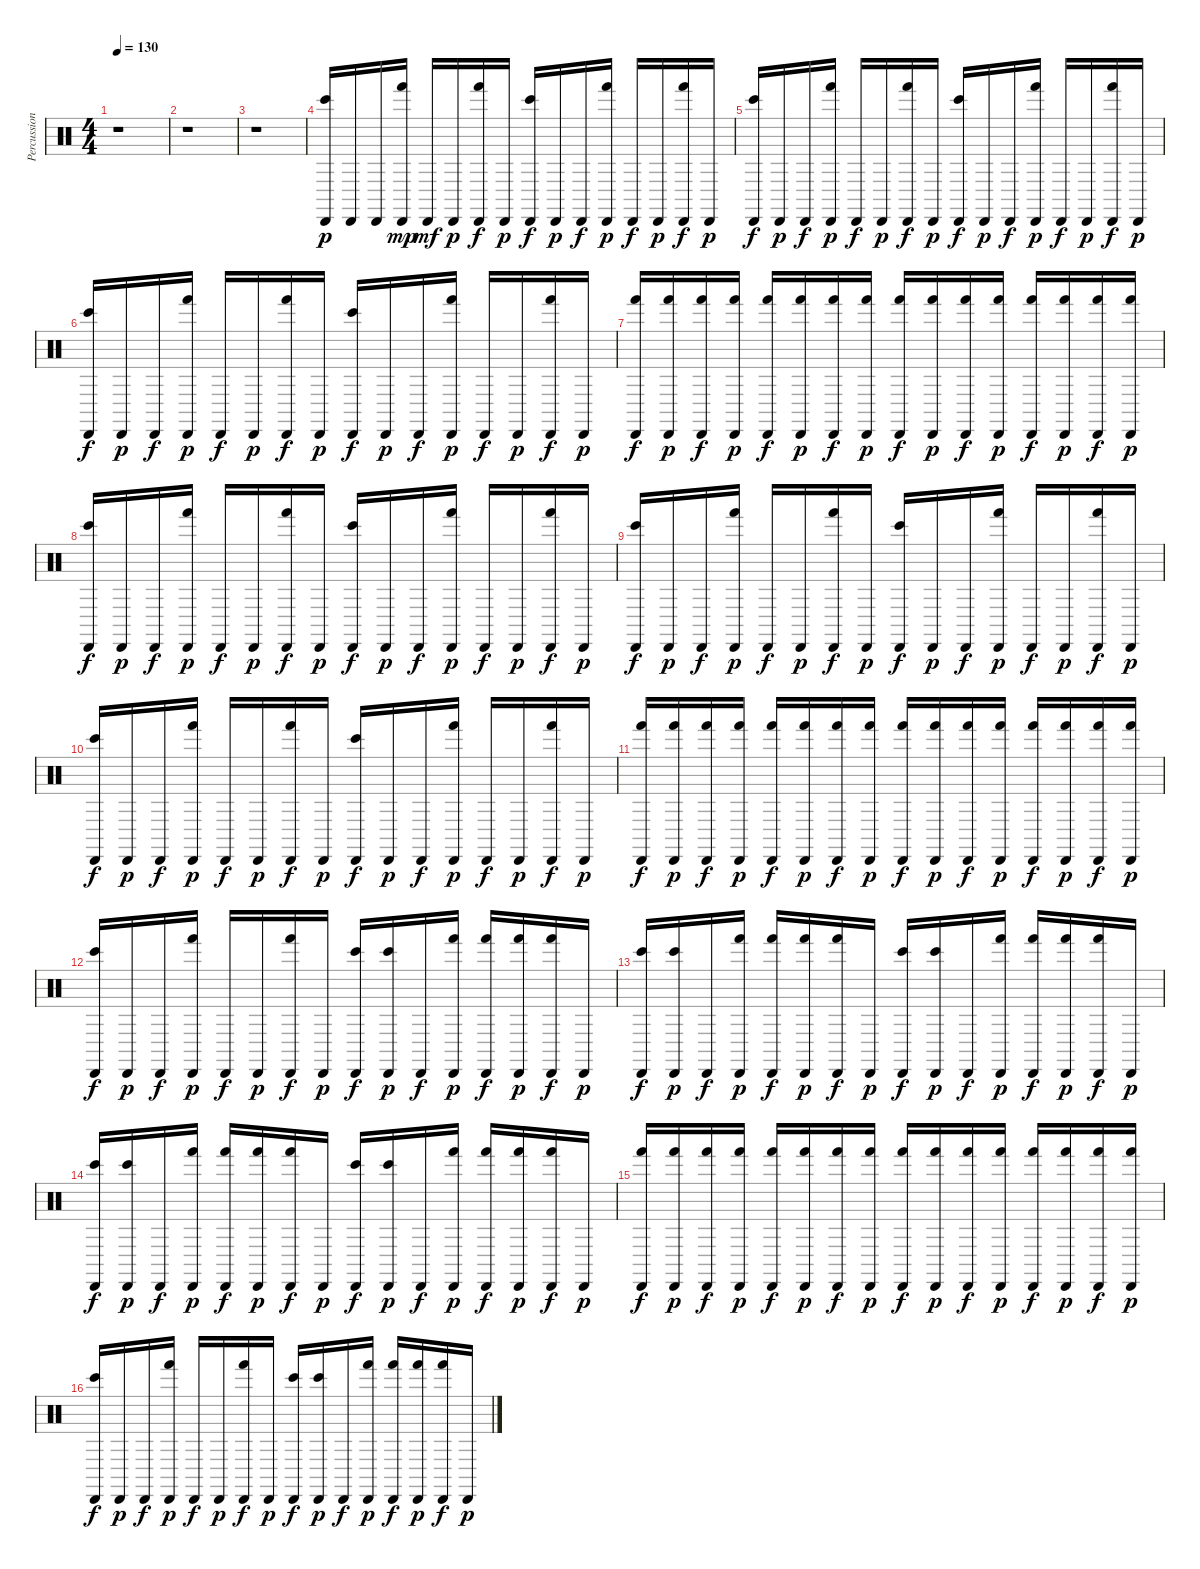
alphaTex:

\track ("Percussion" "Percussion") {instrument percussion}
\staff {score}
\articulation defaults
\ts (4 4)
\tempo 130
\clef neutral
\ks c
r.1{dy p} |
r.1 |
r.1 |
("Cabasa (hit)" "Bongo High (hit)").16 "Cabasa (hit)".16 "Cabasa (hit)".16 ("Cabasa (hit)" "Hand (hit)").16{dy mp} "Cabasa (hit)".16{dy mf} "Cabasa (hit)".16{dy p} ("Cabasa (hit)" "Hand (hit)").16{dy f} "Cabasa (hit)".16{dy p} ("Cabasa (hit)" "Bongo High (hit)").16{dy f} "Cabasa (hit)".16{dy p} "Cabasa (hit)".16{dy f} ("Cabasa (hit)" "Hand (hit)").16{dy p} "Cabasa (hit)".16{dy f} "Cabasa (hit)".16{dy p} ("Cabasa (hit)" "Hand (hit)").16{dy f} "Cabasa (hit)".16{dy p} |
("Cabasa (hit)" "Bongo High (hit)").16{dy f} "Cabasa (hit)".16{dy p} "Cabasa (hit)".16{dy f} ("Cabasa (hit)" "Hand (hit)").16{dy p} "Cabasa (hit)".16{dy f} "Cabasa (hit)".16{dy p} ("Cabasa (hit)" "Hand (hit)").16{dy f} "Cabasa (hit)".16{dy p} ("Cabasa (hit)" "Bongo High (hit)").16{dy f} "Cabasa (hit)".16{dy p} "Cabasa (hit)".16{dy f} ("Cabasa (hit)" "Hand (hit)").16{dy p} "Cabasa (hit)".16{dy f} "Cabasa (hit)".16{dy p} ("Cabasa (hit)" "Hand (hit)").16{dy f} "Cabasa (hit)".16{dy p} |
("Cabasa (hit)" "Bongo High (hit)").16{dy f} "Cabasa (hit)".16{dy p} "Cabasa (hit)".16{dy f} ("Cabasa (hit)" "Hand (hit)").16{dy p} "Cabasa (hit)".16{dy f} "Cabasa (hit)".16{dy p} ("Cabasa (hit)" "Hand (hit)").16{dy f} "Cabasa (hit)".16{dy p} ("Cabasa (hit)" "Bongo High (hit)").16{dy f} "Cabasa (hit)".16{dy p} "Cabasa (hit)".16{dy f} ("Cabasa (hit)" "Hand (hit)").16{dy p} "Cabasa (hit)".16{dy f} "Cabasa (hit)".16{dy p} ("Cabasa (hit)" "Hand (hit)").16{dy f} "Cabasa (hit)".16{dy p} |
("Cabasa (hit)" "Hand (hit)").16{dy f} ("Cabasa (hit)" "Hand (hit)").16{dy p} ("Cabasa (hit)" "Hand (hit)").16{dy f} ("Cabasa (hit)" "Hand (hit)").16{dy p} ("Cabasa (hit)" "Hand (hit)").16{dy f} ("Cabasa (hit)" "Hand (hit)").16{dy p} ("Cabasa (hit)" "Hand (hit)").16{dy f} ("Cabasa (hit)" "Hand (hit)").16{dy p} ("Cabasa (hit)" "Hand (hit)").16{dy f} ("Cabasa (hit)" "Hand (hit)").16{dy p} ("Cabasa (hit)" "Hand (hit)").16{dy f} ("Cabasa (hit)" "Hand (hit)").16{dy p} ("Cabasa (hit)" "Hand (hit)").16{dy f} ("Cabasa (hit)" "Hand (hit)").16{dy p} ("Cabasa (hit)" "Hand (hit)").16{dy f} ("Cabasa (hit)" "Hand (hit)").16{dy p} |
("Cabasa (hit)" "Bongo High (hit)").16{dy f} "Cabasa (hit)".16{dy p} "Cabasa (hit)".16{dy f} ("Cabasa (hit)" "Hand (hit)").16{dy p} "Cabasa (hit)".16{dy f} "Cabasa (hit)".16{dy p} ("Cabasa (hit)" "Hand (hit)").16{dy f} "Cabasa (hit)".16{dy p} ("Cabasa (hit)" "Bongo High (hit)").16{dy f} "Cabasa (hit)".16{dy p} "Cabasa (hit)".16{dy f} ("Cabasa (hit)" "Hand (hit)").16{dy p} "Cabasa (hit)".16{dy f} "Cabasa (hit)".16{dy p} ("Cabasa (hit)" "Hand (hit)").16{dy f} "Cabasa (hit)".16{dy p} |
("Cabasa (hit)" "Bongo High (hit)").16{dy f} "Cabasa (hit)".16{dy p} "Cabasa (hit)".16{dy f} ("Cabasa (hit)" "Hand (hit)").16{dy p} "Cabasa (hit)".16{dy f} "Cabasa (hit)".16{dy p} ("Cabasa (hit)" "Hand (hit)").16{dy f} "Cabasa (hit)".16{dy p} ("Cabasa (hit)" "Bongo High (hit)").16{dy f} "Cabasa (hit)".16{dy p} "Cabasa (hit)".16{dy f} ("Cabasa (hit)" "Hand (hit)").16{dy p} "Cabasa (hit)".16{dy f} "Cabasa (hit)".16{dy p} ("Cabasa (hit)" "Hand (hit)").16{dy f} "Cabasa (hit)".16{dy p} |
("Cabasa (hit)" "Bongo High (hit)").16{dy f} "Cabasa (hit)".16{dy p} "Cabasa (hit)".16{dy f} ("Cabasa (hit)" "Hand (hit)").16{dy p} "Cabasa (hit)".16{dy f} "Cabasa (hit)".16{dy p} ("Cabasa (hit)" "Hand (hit)").16{dy f} "Cabasa (hit)".16{dy p} ("Cabasa (hit)" "Bongo High (hit)").16{dy f} "Cabasa (hit)".16{dy p} "Cabasa (hit)".16{dy f} ("Cabasa (hit)" "Hand (hit)").16{dy p} "Cabasa (hit)".16{dy f} "Cabasa (hit)".16{dy p} ("Cabasa (hit)" "Hand (hit)").16{dy f} "Cabasa (hit)".16{dy p} |
("Cabasa (hit)" "Hand (hit)").16{dy f} ("Cabasa (hit)" "Hand (hit)").16{dy p} ("Cabasa (hit)" "Hand (hit)").16{dy f} ("Cabasa (hit)" "Hand (hit)").16{dy p} ("Cabasa (hit)" "Hand (hit)").16{dy f} ("Cabasa (hit)" "Hand (hit)").16{dy p} ("Cabasa (hit)" "Hand (hit)").16{dy f} ("Cabasa (hit)" "Hand (hit)").16{dy p} ("Cabasa (hit)" "Hand (hit)").16{dy f} ("Cabasa (hit)" "Hand (hit)").16{dy p} ("Cabasa (hit)" "Hand (hit)").16{dy f} ("Cabasa (hit)" "Hand (hit)").16{dy p} ("Cabasa (hit)" "Hand (hit)").16{dy f} ("Cabasa (hit)" "Hand (hit)").16{dy p} ("Cabasa (hit)" "Hand (hit)").16{dy f} ("Cabasa (hit)" "Hand (hit)").16{dy p} |
("Cabasa (hit)" "Bongo High (hit)").16{dy f} "Cabasa (hit)".16{dy p} "Cabasa (hit)".16{dy f} ("Cabasa (hit)" "Hand (hit)").16{dy p} "Cabasa (hit)".16{dy f} "Cabasa (hit)".16{dy p} ("Cabasa (hit)" "Hand (hit)").16{dy f} "Cabasa (hit)".16{dy p} ("Cabasa (hit)" "Bongo High (hit)").16{dy f} ("Cabasa (hit)" "Bongo High (hit)").16{dy p} "Cabasa (hit)".16{dy f} ("Cabasa (hit)" "Hand (hit)").16{dy p} ("Cabasa (hit)" "Hand (hit)").16{dy f} ("Cabasa (hit)" "Hand (hit)").16{dy p} ("Cabasa (hit)" "Hand (hit)").16{dy f} "Cabasa (hit)".16{dy p} |
("Cabasa (hit)" "Bongo High (hit)").16{dy f} ("Cabasa (hit)" "Bongo High (hit)").16{dy p} "Cabasa (hit)".16{dy f} ("Cabasa (hit)" "Hand (hit)").16{dy p} ("Cabasa (hit)" "Hand (hit)").16{dy f} ("Cabasa (hit)" "Hand (hit)").16{dy p} ("Cabasa (hit)" "Hand (hit)").16{dy f} "Cabasa (hit)".16{dy p} ("Cabasa (hit)" "Bongo High (hit)").16{dy f} ("Cabasa (hit)" "Bongo High (hit)").16{dy p} "Cabasa (hit)".16{dy f} ("Cabasa (hit)" "Hand (hit)").16{dy p} ("Cabasa (hit)" "Hand (hit)").16{dy f} ("Cabasa (hit)" "Hand (hit)").16{dy p} ("Cabasa (hit)" "Hand (hit)").16{dy f} "Cabasa (hit)".16{dy p} |
("Cabasa (hit)" "Bongo High (hit)").16{dy f} ("Cabasa (hit)" "Bongo High (hit)").16{dy p} "Cabasa (hit)".16{dy f} ("Cabasa (hit)" "Hand (hit)").16{dy p} ("Cabasa (hit)" "Hand (hit)").16{dy f} ("Cabasa (hit)" "Hand (hit)").16{dy p} ("Cabasa (hit)" "Hand (hit)").16{dy f} "Cabasa (hit)".16{dy p} ("Cabasa (hit)" "Bongo High (hit)").16{dy f} ("Cabasa (hit)" "Bongo High (hit)").16{dy p} "Cabasa (hit)".16{dy f} ("Cabasa (hit)" "Hand (hit)").16{dy p} ("Cabasa (hit)" "Hand (hit)").16{dy f} ("Cabasa (hit)" "Hand (hit)").16{dy p} ("Cabasa (hit)" "Hand (hit)").16{dy f} "Cabasa (hit)".16{dy p} |
("Cabasa (hit)" "Hand (hit)").16{dy f} ("Cabasa (hit)" "Hand (hit)").16{dy p} ("Cabasa (hit)" "Hand (hit)").16{dy f} ("Cabasa (hit)" "Hand (hit)").16{dy p} ("Cabasa (hit)" "Hand (hit)").16{dy f} ("Cabasa (hit)" "Hand (hit)").16{dy p} ("Cabasa (hit)" "Hand (hit)").16{dy f} ("Cabasa (hit)" "Hand (hit)").16{dy p} ("Cabasa (hit)" "Hand (hit)").16{dy f} ("Cabasa (hit)" "Hand (hit)").16{dy p} ("Cabasa (hit)" "Hand (hit)").16{dy f} ("Cabasa (hit)" "Hand (hit)").16{dy p} ("Cabasa (hit)" "Hand (hit)").16{dy f} ("Cabasa (hit)" "Hand (hit)").16{dy p} ("Cabasa (hit)" "Hand (hit)").16{dy f} ("Cabasa (hit)" "Hand (hit)").16{dy p} |
("Cabasa (hit)" "Bongo High (hit)").16{dy f} "Cabasa (hit)".16{dy p} "Cabasa (hit)".16{dy f} ("Cabasa (hit)" "Hand (hit)").16{dy p} "Cabasa (hit)".16{dy f} "Cabasa (hit)".16{dy p} ("Cabasa (hit)" "Hand (hit)").16{dy f} "Cabasa (hit)".16{dy p} ("Cabasa (hit)" "Bongo High (hit)").16{dy f} ("Cabasa (hit)" "Bongo High (hit)").16{dy p} "Cabasa (hit)".16{dy f} ("Cabasa (hit)" "Hand (hit)").16{dy p} ("Cabasa (hit)" "Hand (hit)").16{dy f} ("Cabasa (hit)" "Hand (hit)").16{dy p} ("Cabasa (hit)" "Hand (hit)").16{dy f} "Cabasa (hit)".16{dy p}
